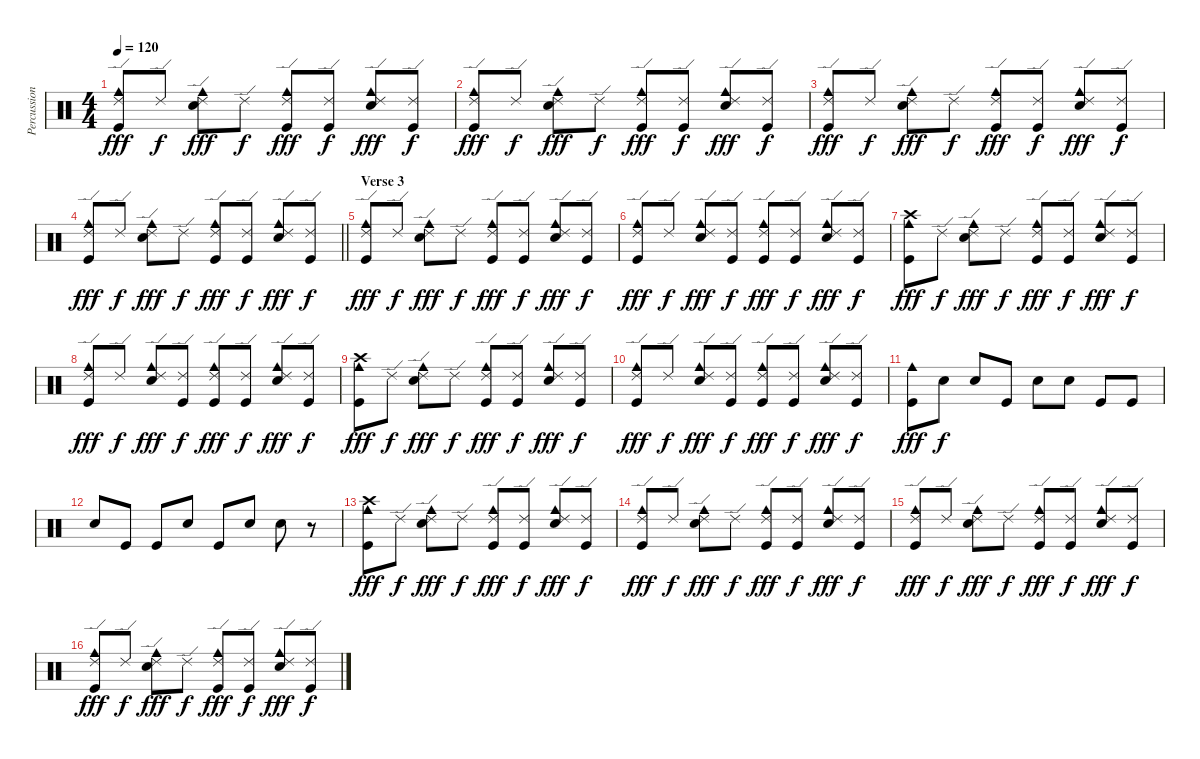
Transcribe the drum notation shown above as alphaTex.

\track ("Percussion" "Percussion") {instrument percussion}
\staff {score}
\articulation defaults
\ts (4 4)
\tempo 120
\clef neutral
\ks c
("Ride (edge) 2" "Cowbell medium (hit)" "Kick (hit)").8{dy fff} "Ride (edge) 2".8{dy f} ("Ride (edge) 2" "Cowbell medium (hit)" "Snare (hit) 2").8{dy fff} "Ride (edge) 2".8{dy f} ("Ride (edge) 2" "Cowbell medium (hit)" "Kick (hit)").8{dy fff} ("Ride (edge) 2" "Kick (hit)").8{dy f} ("Ride (edge) 2" "Cowbell medium (hit)" "Snare (hit) 2").8{dy fff} ("Ride (edge) 2" "Kick (hit)").8{dy f} |
("Ride (edge) 2" "Cowbell medium (hit)" "Kick (hit)").8{dy fff} "Ride (edge) 2".8{dy f} ("Ride (edge) 2" "Cowbell medium (hit)" "Snare (hit) 2").8{dy fff} "Ride (edge) 2".8{dy f} ("Ride (edge) 2" "Cowbell medium (hit)" "Kick (hit)").8{dy fff} ("Ride (edge) 2" "Kick (hit)").8{dy f} ("Ride (edge) 2" "Cowbell medium (hit)" "Snare (hit) 2").8{dy fff} ("Ride (edge) 2" "Kick (hit)").8{dy f} |
("Ride (edge) 2" "Cowbell medium (hit)" "Kick (hit)").8{dy fff} "Ride (edge) 2".8{dy f} ("Ride (edge) 2" "Cowbell medium (hit)" "Snare (hit) 2").8{dy fff} "Ride (edge) 2".8{dy f} ("Ride (edge) 2" "Cowbell medium (hit)" "Kick (hit)").8{dy fff} ("Ride (edge) 2" "Kick (hit)").8{dy f} ("Ride (edge) 2" "Cowbell medium (hit)" "Snare (hit) 2").8{dy fff} ("Ride (edge) 2" "Kick (hit)").8{dy f} |
\barLineRight lightlight
("Ride (edge) 2" "Cowbell medium (hit)" "Kick (hit)").8{dy fff} "Ride (edge) 2".8{dy f} ("Ride (edge) 2" "Cowbell medium (hit)" "Snare (hit) 2").8{dy fff} "Ride (edge) 2".8{dy f} ("Ride (edge) 2" "Cowbell medium (hit)" "Kick (hit)").8{dy fff} ("Ride (edge) 2" "Kick (hit)").8{dy f} ("Ride (edge) 2" "Cowbell medium (hit)" "Snare (hit) 2").8{dy fff} ("Ride (edge) 2" "Kick (hit)").8{dy f} |
\section ("" "Verse 3")
("Ride (edge) 2" "Cowbell medium (hit)" "Kick (hit)").8{dy fff} "Ride (edge) 2".8{dy f} ("Ride (edge) 2" "Cowbell medium (hit)" "Snare (hit) 2").8{dy fff} "Ride (edge) 2".8{dy f} ("Ride (edge) 2" "Cowbell medium (hit)" "Kick (hit)").8{dy fff} ("Ride (edge) 2" "Kick (hit)").8{dy f} ("Ride (edge) 2" "Cowbell medium (hit)" "Snare (hit) 2").8{dy fff} ("Ride (edge) 2" "Kick (hit)").8{dy f} |
("Ride (edge) 2" "Cowbell medium (hit)" "Kick (hit)").8{dy fff} "Ride (edge) 2".8{dy f} ("Ride (edge) 2" "Cowbell medium (hit)" "Snare (hit) 2").8{dy fff} ("Ride (edge) 2" "Kick (hit)").8{dy f} ("Ride (edge) 2" "Cowbell medium (hit)" "Kick (hit)").8{dy fff} ("Ride (edge) 2" "Kick (hit)").8{dy f} ("Ride (edge) 2" "Cowbell medium (hit)" "Snare (hit) 2").8{dy fff} ("Ride (edge) 2" "Kick (hit)").8{dy f} |
("Crash high (hit)" "Cowbell medium (hit)" "Kick (hit)").8{dy fff} "Ride (edge) 2".8{dy f} ("Ride (edge) 2" "Cowbell medium (hit)" "Snare (hit) 2").8{dy fff} "Ride (edge) 2".8{dy f} ("Ride (edge) 2" "Cowbell medium (hit)" "Kick (hit)").8{dy fff} ("Ride (edge) 2" "Kick (hit)").8{dy f} ("Ride (edge) 2" "Cowbell medium (hit)" "Snare (hit) 2").8{dy fff} ("Ride (edge) 2" "Kick (hit)").8{dy f} |
("Ride (edge) 2" "Cowbell medium (hit)" "Kick (hit)").8{dy fff} "Ride (edge) 2".8{dy f} ("Ride (edge) 2" "Cowbell medium (hit)" "Snare (hit) 2").8{dy fff} ("Ride (edge) 2" "Kick (hit)").8{dy f} ("Ride (edge) 2" "Cowbell medium (hit)" "Kick (hit)").8{dy fff} ("Ride (edge) 2" "Kick (hit)").8{dy f} ("Ride (edge) 2" "Cowbell medium (hit)" "Snare (hit) 2").8{dy fff} ("Ride (edge) 2" "Kick (hit)").8{dy f} |
("Crash high (hit)" "Cowbell medium (hit)" "Kick (hit)").8{dy fff} "Ride (edge) 2".8{dy f} ("Ride (edge) 2" "Cowbell medium (hit)" "Snare (hit) 2").8{dy fff} "Ride (edge) 2".8{dy f} ("Ride (edge) 2" "Cowbell medium (hit)" "Kick (hit)").8{dy fff} ("Ride (edge) 2" "Kick (hit)").8{dy f} ("Ride (edge) 2" "Cowbell medium (hit)" "Snare (hit) 2").8{dy fff} ("Ride (edge) 2" "Kick (hit)").8{dy f} |
("Ride (edge) 2" "Cowbell medium (hit)" "Kick (hit)").8{dy fff} "Ride (edge) 2".8{dy f} ("Ride (edge) 2" "Cowbell medium (hit)" "Snare (hit) 2").8{dy fff} ("Ride (edge) 2" "Kick (hit)").8{dy f} ("Ride (edge) 2" "Cowbell medium (hit)" "Kick (hit)").8{dy fff} ("Ride (edge) 2" "Kick (hit)").8{dy f} ("Ride (edge) 2" "Cowbell medium (hit)" "Snare (hit) 2").8{dy fff} ("Ride (edge) 2" "Kick (hit)").8{dy f} |
("Cowbell medium (hit)" "Kick (hit)").8{dy fff} "Snare (hit) 2".8{dy f} "Snare (hit) 2".8 "Kick (hit)".8 "Snare (hit) 2".8 "Snare (hit) 2".8 "Kick (hit)".8 "Kick (hit)".8 |
"Snare (hit) 2".8 "Kick (hit)".8 "Kick (hit)".8 "Snare (hit) 2".8 "Kick (hit)".8 "Snare (hit) 2".8 "Snare (hit) 2".8 r.8 |
("Crash high (hit)" "Cowbell medium (hit)" "Kick (hit)").8{dy fff} "Ride (edge) 2".8{dy f} ("Ride (edge) 2" "Cowbell medium (hit)" "Snare (hit) 2").8{dy fff} "Ride (edge) 2".8{dy f} ("Ride (edge) 2" "Cowbell medium (hit)" "Kick (hit)").8{dy fff} ("Ride (edge) 2" "Kick (hit)").8{dy f} ("Ride (edge) 2" "Cowbell medium (hit)" "Snare (hit) 2").8{dy fff} ("Ride (edge) 2" "Kick (hit)").8{dy f} |
("Ride (edge) 2" "Cowbell medium (hit)" "Kick (hit)").8{dy fff} "Ride (edge) 2".8{dy f} ("Ride (edge) 2" "Cowbell medium (hit)" "Snare (hit) 2").8{dy fff} "Ride (edge) 2".8{dy f} ("Ride (edge) 2" "Cowbell medium (hit)" "Kick (hit)").8{dy fff} ("Ride (edge) 2" "Kick (hit)").8{dy f} ("Ride (edge) 2" "Cowbell medium (hit)" "Snare (hit) 2").8{dy fff} ("Ride (edge) 2" "Kick (hit)").8{dy f} |
("Ride (edge) 2" "Cowbell medium (hit)" "Kick (hit)").8{dy fff} "Ride (edge) 2".8{dy f} ("Ride (edge) 2" "Cowbell medium (hit)" "Snare (hit) 2").8{dy fff} "Ride (edge) 2".8{dy f} ("Ride (edge) 2" "Cowbell medium (hit)" "Kick (hit)").8{dy fff} ("Ride (edge) 2" "Kick (hit)").8{dy f} ("Ride (edge) 2" "Cowbell medium (hit)" "Snare (hit) 2").8{dy fff} ("Ride (edge) 2" "Kick (hit)").8{dy f} |
("Ride (edge) 2" "Cowbell medium (hit)" "Kick (hit)").8{dy fff} "Ride (edge) 2".8{dy f} ("Ride (edge) 2" "Cowbell medium (hit)" "Snare (hit) 2").8{dy fff} "Ride (edge) 2".8{dy f} ("Ride (edge) 2" "Cowbell medium (hit)" "Kick (hit)").8{dy fff} ("Ride (edge) 2" "Kick (hit)").8{dy f} ("Ride (edge) 2" "Cowbell medium (hit)" "Snare (hit) 2").8{dy fff} ("Ride (edge) 2" "Kick (hit)").8{dy f}
